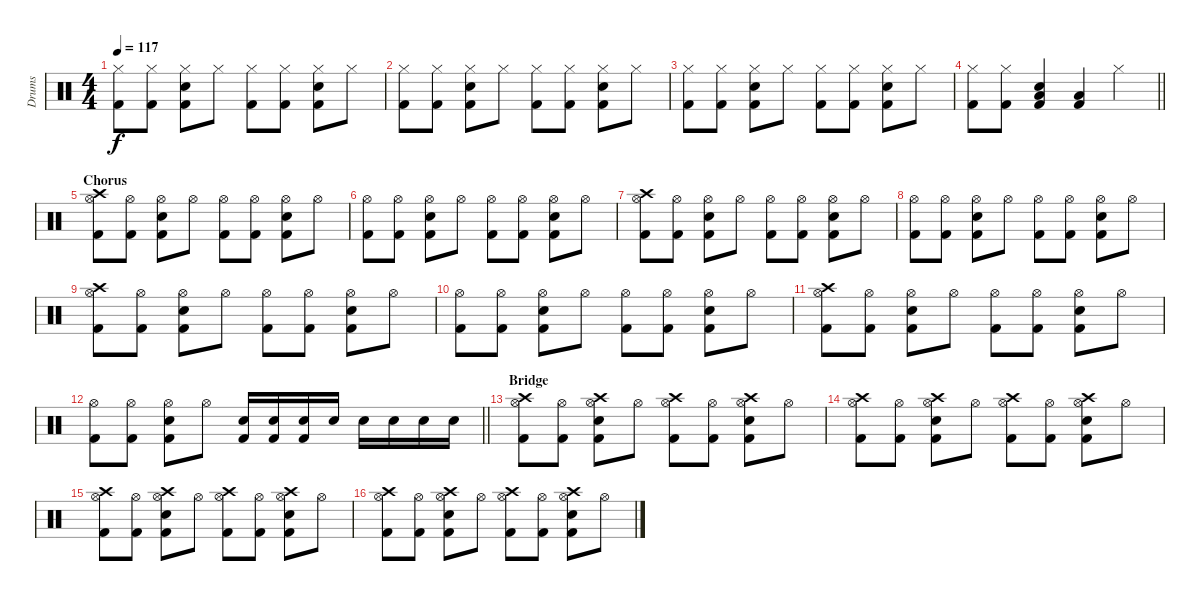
\track ("Drums" "Drums") {instrument percussion}
\staff {score}
\articulation defaults
\ts (4 4)
\tempo 117
\clef neutral
\ks c
("Kick (hit) 2" "Hi-Hat (closed)").8{dy f} ("Kick (hit) 2" "Hi-Hat (closed)").8 ("Kick (hit) 2" "Hi-Hat (closed)" "Snare (hit) 2").8 "Hi-Hat (closed)".8 ("Kick (hit) 2" "Hi-Hat (closed)").8 ("Kick (hit) 2" "Hi-Hat (closed)").8 ("Kick (hit) 2" "Hi-Hat (closed)" "Snare (hit) 2").8 "Hi-Hat (closed)".8 |
("Kick (hit) 2" "Hi-Hat (closed)").8 ("Kick (hit) 2" "Hi-Hat (closed)").8 ("Kick (hit) 2" "Hi-Hat (closed)" "Snare (hit) 2").8 "Hi-Hat (closed)".8 ("Kick (hit) 2" "Hi-Hat (closed)").8 ("Kick (hit) 2" "Hi-Hat (closed)").8 ("Kick (hit) 2" "Hi-Hat (closed)" "Snare (hit) 2").8 "Hi-Hat (closed)".8 |
("Kick (hit) 2" "Hi-Hat (closed)").8 ("Kick (hit) 2" "Hi-Hat (closed)").8 ("Kick (hit) 2" "Hi-Hat (closed)" "Snare (hit) 2").8 "Hi-Hat (closed)".8 ("Kick (hit) 2" "Hi-Hat (closed)").8 ("Kick (hit) 2" "Hi-Hat (closed)").8 ("Kick (hit) 2" "Hi-Hat (closed)" "Snare (hit) 2").8 "Hi-Hat (closed)".8 |
\barLineRight lightlight
("Kick (hit) 2" "Hi-Hat (closed)").8 ("Kick (hit) 2" "Hi-Hat (closed)").8 ("Kick (hit) 2" "Low Floor Tom (hit)" "Snare (hit) 2").4 ("Kick (hit) 2" "Low Floor Tom (hit)").4 "Hi-Hat (closed)".4 |
\section ("" "Chorus")
("Kick (hit) 2" "Hi-Hat (open)" "Crash high (hit)").8 ("Kick (hit) 2" "Hi-Hat (open)").8 ("Kick (hit) 2" "Hi-Hat (open)" "Snare (hit) 2").8 "Hi-Hat (open)".8 ("Kick (hit) 2" "Hi-Hat (open)").8 ("Kick (hit) 2" "Hi-Hat (open)").8 ("Kick (hit) 2" "Hi-Hat (open)" "Snare (hit) 2").8 "Hi-Hat (open)".8 |
("Kick (hit) 2" "Hi-Hat (open)").8 ("Kick (hit) 2" "Hi-Hat (open)").8 ("Kick (hit) 2" "Hi-Hat (open)" "Snare (hit) 2").8 "Hi-Hat (open)".8 ("Kick (hit) 2" "Hi-Hat (open)").8 ("Kick (hit) 2" "Hi-Hat (open)").8 ("Kick (hit) 2" "Hi-Hat (open)" "Snare (hit) 2").8 "Hi-Hat (open)".8 |
("Kick (hit) 2" "Hi-Hat (open)" "Crash high (hit)").8 ("Kick (hit) 2" "Hi-Hat (open)").8 ("Kick (hit) 2" "Hi-Hat (open)" "Snare (hit) 2").8 "Hi-Hat (open)".8 ("Kick (hit) 2" "Hi-Hat (open)").8 ("Kick (hit) 2" "Hi-Hat (open)").8 ("Kick (hit) 2" "Hi-Hat (open)" "Snare (hit) 2").8 "Hi-Hat (open)".8 |
("Kick (hit) 2" "Hi-Hat (open)").8 ("Kick (hit) 2" "Hi-Hat (open)").8 ("Kick (hit) 2" "Hi-Hat (open)" "Snare (hit) 2").8 "Hi-Hat (open)".8 ("Kick (hit) 2" "Hi-Hat (open)").8 ("Kick (hit) 2" "Hi-Hat (open)").8 ("Kick (hit) 2" "Hi-Hat (open)" "Snare (hit) 2").8 "Hi-Hat (open)".8 |
("Kick (hit) 2" "Hi-Hat (open)" "Crash high (hit)").8 ("Kick (hit) 2" "Hi-Hat (open)").8 ("Kick (hit) 2" "Hi-Hat (open)" "Snare (hit) 2").8 "Hi-Hat (open)".8 ("Kick (hit) 2" "Hi-Hat (open)").8 ("Kick (hit) 2" "Hi-Hat (open)").8 ("Kick (hit) 2" "Hi-Hat (open)" "Snare (hit) 2").8 "Hi-Hat (open)".8 |
("Kick (hit) 2" "Hi-Hat (open)").8 ("Kick (hit) 2" "Hi-Hat (open)").8 ("Kick (hit) 2" "Hi-Hat (open)" "Snare (hit) 2").8 "Hi-Hat (open)".8 ("Kick (hit) 2" "Hi-Hat (open)").8 ("Kick (hit) 2" "Hi-Hat (open)").8 ("Kick (hit) 2" "Hi-Hat (open)" "Snare (hit) 2").8 "Hi-Hat (open)".8 |
("Kick (hit) 2" "Hi-Hat (open)" "Crash high (hit)").8 ("Kick (hit) 2" "Hi-Hat (open)").8 ("Kick (hit) 2" "Hi-Hat (open)" "Snare (hit) 2").8 "Hi-Hat (open)".8 ("Kick (hit) 2" "Hi-Hat (open)").8 ("Kick (hit) 2" "Hi-Hat (open)").8 ("Kick (hit) 2" "Hi-Hat (open)" "Snare (hit) 2").8 "Hi-Hat (open)".8 |
\barLineRight lightlight
("Kick (hit) 2" "Hi-Hat (open)").8 ("Kick (hit) 2" "Hi-Hat (open)").8 ("Kick (hit) 2" "Hi-Hat (open)" "Snare (hit) 2").8 "Hi-Hat (open)".8 ("Kick (hit) 2" "Snare (hit) 2").16 ("Kick (hit) 2" "Snare (hit) 2").16 ("Kick (hit) 2" "Snare (hit) 2").16 "Snare (hit) 2".16 "Snare (hit) 2".16 "Snare (hit) 2".16 "Snare (hit) 2".16 "Snare (hit) 2".16 |
\section ("" "Bridge")
("Kick (hit) 2" "Hi-Hat (open)" "Crash high (hit)").8 ("Kick (hit) 2" "Hi-Hat (open)").8 ("Kick (hit) 2" "Hi-Hat (open)" "Snare (hit) 2" "Crash high (hit)").8 "Hi-Hat (open)".8 ("Kick (hit) 2" "Hi-Hat (open)" "Crash high (hit)").8 ("Kick (hit) 2" "Hi-Hat (open)").8 ("Kick (hit) 2" "Hi-Hat (open)" "Snare (hit) 2" "Crash high (hit)").8 "Hi-Hat (open)".8 |
("Kick (hit) 2" "Hi-Hat (open)" "Crash high (hit)").8 ("Kick (hit) 2" "Hi-Hat (open)").8 ("Kick (hit) 2" "Hi-Hat (open)" "Snare (hit) 2" "Crash high (hit)").8 "Hi-Hat (open)".8 ("Kick (hit) 2" "Hi-Hat (open)" "Crash high (hit)").8 ("Kick (hit) 2" "Hi-Hat (open)").8 ("Kick (hit) 2" "Hi-Hat (open)" "Snare (hit) 2" "Crash high (hit)").8 "Hi-Hat (open)".8 |
("Kick (hit) 2" "Hi-Hat (open)" "Crash high (hit)").8 ("Kick (hit) 2" "Hi-Hat (open)").8 ("Kick (hit) 2" "Hi-Hat (open)" "Snare (hit) 2" "Crash high (hit)").8 "Hi-Hat (open)".8 ("Kick (hit) 2" "Hi-Hat (open)" "Crash high (hit)").8 ("Kick (hit) 2" "Hi-Hat (open)").8 ("Kick (hit) 2" "Hi-Hat (open)" "Snare (hit) 2" "Crash high (hit)").8 "Hi-Hat (open)".8 |
("Kick (hit) 2" "Hi-Hat (open)" "Crash high (hit)").8 ("Kick (hit) 2" "Hi-Hat (open)").8 ("Kick (hit) 2" "Hi-Hat (open)" "Snare (hit) 2" "Crash high (hit)").8 "Hi-Hat (open)".8 ("Kick (hit) 2" "Hi-Hat (open)" "Crash high (hit)").8 ("Kick (hit) 2" "Hi-Hat (open)").8 ("Kick (hit) 2" "Hi-Hat (open)" "Snare (hit) 2" "Crash high (hit)").8 "Hi-Hat (open)".8
